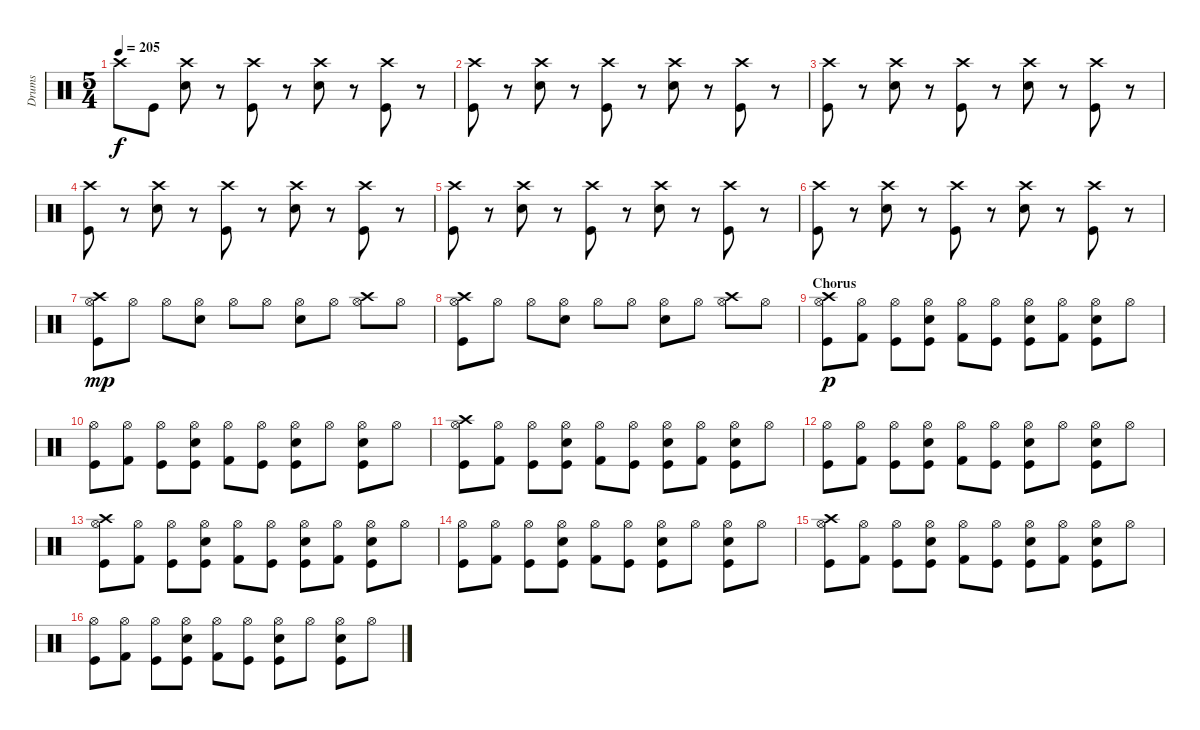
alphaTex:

\track ("Drums" "Drums") {instrument percussion}
\staff {score}
\articulation defaults
\ts (5 4)
\tempo 205
\clef neutral
\ks c "Crash high (hit)".8{dy f} "Kick (hit)".8
("Crash high (hit)" "Snare (hit) 2").8 r.8 ("Crash high (hit)" "Kick (hit)").8 r.8 ("Crash high (hit)" "Snare (hit) 2").8 r.8 ("Crash high (hit)" "Kick (hit)").8 r.8 |
("Crash high (hit)" "Kick (hit)").8 r.8 ("Crash high (hit)" "Snare (hit) 2").8 r.8 ("Crash high (hit)" "Kick (hit)").8 r.8 ("Crash high (hit)" "Snare (hit) 2").8 r.8 ("Crash high (hit)" "Kick (hit)").8 r.8 |
("Crash high (hit)" "Kick (hit)").8 r.8 ("Crash high (hit)" "Snare (hit) 2").8 r.8 ("Crash high (hit)" "Kick (hit)").8 r.8 ("Crash high (hit)" "Snare (hit) 2").8 r.8 ("Crash high (hit)" "Kick (hit)").8 r.8 |
("Crash high (hit)" "Kick (hit)").8 r.8 ("Crash high (hit)" "Snare (hit) 2").8 r.8 ("Crash high (hit)" "Kick (hit)").8 r.8 ("Crash high (hit)" "Snare (hit) 2").8 r.8 ("Crash high (hit)" "Kick (hit)").8 r.8 |
("Crash high (hit)" "Kick (hit)").8 r.8 ("Crash high (hit)" "Snare (hit) 2").8 r.8 ("Crash high (hit)" "Kick (hit)").8 r.8 ("Crash high (hit)" "Snare (hit) 2").8 r.8 ("Crash high (hit)" "Kick (hit)").8 r.8 |
("Crash high (hit)" "Kick (hit)").8 r.8 ("Crash high (hit)" "Snare (hit) 2").8 r.8 ("Crash high (hit)" "Kick (hit)").8 r.8 ("Crash high (hit)" "Snare (hit) 2").8 r.8 ("Crash high (hit)" "Kick (hit)").8 r.8 |
("Crash high (hit)" "Hi-Hat (open)" "Kick (hit)").8{dy mp} "Hi-Hat (open)".8 "Hi-Hat (open)".8 ("Hi-Hat (open)" "Snare (hit) 2").8 "Hi-Hat (open)".8 "Hi-Hat (open)".8 ("Hi-Hat (open)" "Snare (hit) 2").8 "Hi-Hat (open)".8 ("Crash high (hit)" "Hi-Hat (open)").8 "Hi-Hat (open)".8 |
("Crash high (hit)" "Hi-Hat (open)" "Kick (hit)").8 "Hi-Hat (open)".8 "Hi-Hat (open)".8 ("Hi-Hat (open)" "Snare (hit) 2").8 "Hi-Hat (open)".8 "Hi-Hat (open)".8 ("Hi-Hat (open)" "Snare (hit) 2").8 "Hi-Hat (open)".8 ("Crash high (hit)" "Hi-Hat (open)").8 "Hi-Hat (open)".8 |
\section ("" "Chorus")
("Crash high (hit)" "Hi-Hat (open)" "Kick (hit)").8{dy p} ("Hi-Hat (open)" "Kick (hit) 2").8 ("Hi-Hat (open)" "Kick (hit)").8 ("Hi-Hat (open)" "Snare (hit) 2" "Kick (hit)").8 ("Hi-Hat (open)" "Kick (hit) 2").8 ("Hi-Hat (open)" "Kick (hit)").8 ("Hi-Hat (open)" "Snare (hit) 2" "Kick (hit)").8 ("Hi-Hat (open)" "Kick (hit) 2").8 ("Hi-Hat (open)" "Snare (hit) 2" "Kick (hit)").8 "Hi-Hat (open)".8 |
("Hi-Hat (open)" "Kick (hit)").8 ("Hi-Hat (open)" "Kick (hit) 2").8 ("Hi-Hat (open)" "Kick (hit)").8 ("Hi-Hat (open)" "Snare (hit) 2" "Kick (hit)").8 ("Hi-Hat (open)" "Kick (hit) 2").8 ("Hi-Hat (open)" "Kick (hit)").8 ("Hi-Hat (open)" "Snare (hit) 2" "Kick (hit)").8 "Hi-Hat (open)".8 ("Hi-Hat (open)" "Snare (hit) 2" "Kick (hit)").8 "Hi-Hat (open)".8 |
("Crash high (hit)" "Hi-Hat (open)" "Kick (hit)").8 ("Hi-Hat (open)" "Kick (hit) 2").8 ("Hi-Hat (open)" "Kick (hit)").8 ("Hi-Hat (open)" "Snare (hit) 2" "Kick (hit)").8 ("Hi-Hat (open)" "Kick (hit) 2").8 ("Hi-Hat (open)" "Kick (hit)").8 ("Hi-Hat (open)" "Snare (hit) 2" "Kick (hit)").8 ("Hi-Hat (open)" "Kick (hit) 2").8 ("Hi-Hat (open)" "Snare (hit) 2" "Kick (hit)").8 "Hi-Hat (open)".8 |
("Hi-Hat (open)" "Kick (hit)").8 ("Hi-Hat (open)" "Kick (hit) 2").8 ("Hi-Hat (open)" "Kick (hit)").8 ("Hi-Hat (open)" "Snare (hit) 2" "Kick (hit)").8 ("Hi-Hat (open)" "Kick (hit) 2").8 ("Hi-Hat (open)" "Kick (hit)").8 ("Hi-Hat (open)" "Snare (hit) 2" "Kick (hit)").8 "Hi-Hat (open)".8 ("Hi-Hat (open)" "Snare (hit) 2" "Kick (hit)").8 "Hi-Hat (open)".8 |
("Crash high (hit)" "Hi-Hat (open)" "Kick (hit)").8 ("Hi-Hat (open)" "Kick (hit) 2").8 ("Hi-Hat (open)" "Kick (hit)").8 ("Hi-Hat (open)" "Snare (hit) 2" "Kick (hit)").8 ("Hi-Hat (open)" "Kick (hit) 2").8 ("Hi-Hat (open)" "Kick (hit)").8 ("Hi-Hat (open)" "Snare (hit) 2" "Kick (hit)").8 ("Hi-Hat (open)" "Kick (hit) 2").8 ("Hi-Hat (open)" "Snare (hit) 2" "Kick (hit)").8 "Hi-Hat (open)".8 |
("Hi-Hat (open)" "Kick (hit)").8 ("Hi-Hat (open)" "Kick (hit) 2").8 ("Hi-Hat (open)" "Kick (hit)").8 ("Hi-Hat (open)" "Snare (hit) 2" "Kick (hit)").8 ("Hi-Hat (open)" "Kick (hit) 2").8 ("Hi-Hat (open)" "Kick (hit)").8 ("Hi-Hat (open)" "Snare (hit) 2" "Kick (hit)").8 "Hi-Hat (open)".8 ("Hi-Hat (open)" "Snare (hit) 2" "Kick (hit)").8 "Hi-Hat (open)".8 |
("Crash high (hit)" "Hi-Hat (open)" "Kick (hit)").8 ("Hi-Hat (open)" "Kick (hit) 2").8 ("Hi-Hat (open)" "Kick (hit)").8 ("Hi-Hat (open)" "Snare (hit) 2" "Kick (hit)").8 ("Hi-Hat (open)" "Kick (hit) 2").8 ("Hi-Hat (open)" "Kick (hit)").8 ("Hi-Hat (open)" "Snare (hit) 2" "Kick (hit)").8 ("Hi-Hat (open)" "Kick (hit) 2").8 ("Hi-Hat (open)" "Snare (hit) 2" "Kick (hit)").8 "Hi-Hat (open)".8 |
("Hi-Hat (open)" "Kick (hit)").8 ("Hi-Hat (open)" "Kick (hit) 2").8 ("Hi-Hat (open)" "Kick (hit)").8 ("Hi-Hat (open)" "Snare (hit) 2" "Kick (hit)").8 ("Hi-Hat (open)" "Kick (hit) 2").8 ("Hi-Hat (open)" "Kick (hit)").8 ("Hi-Hat (open)" "Snare (hit) 2" "Kick (hit)").8 "Hi-Hat (open)".8 ("Hi-Hat (open)" "Snare (hit) 2" "Kick (hit)").8 "Hi-Hat (open)".8
